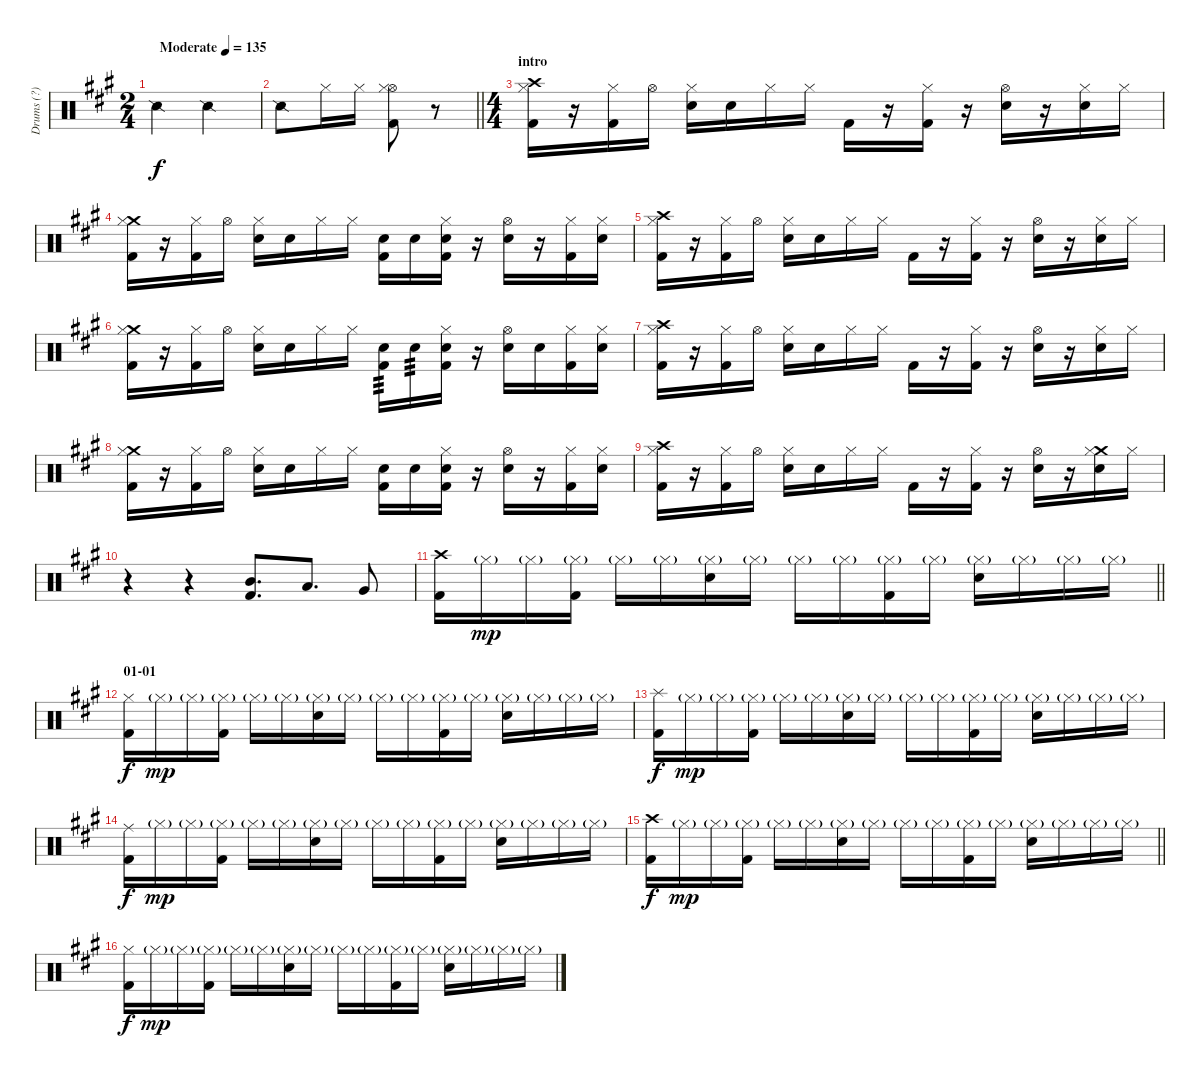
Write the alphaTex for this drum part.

\track ("Drums (?)" "Drums (?)") {instrument percussion}
\staff {score}
\articulation defaults
\ts (2 4)
\tempo (135 "Moderate")
\clef neutral
\ks a "Snare (side stick) 2".4{dy f} "Snare (side stick) 2".4
|
\barLineRight lightlight "Snare (side stick) 2".8 "Hi-Hat (closed)".16 "Hi-Hat (closed)".16
("Hi-Hat (open)" "Hi-Hat (closed)" "Kick (hit) 2").8 r.8 |
\ts (4 4)
\section ("" "intro")
("Crash high (hit)" "Hi-Hat (closed)" "Kick (hit) 2").16 r.16 ("Hi-Hat (closed)" "Kick (hit) 2").16 "Hi-Hat (open)".16 ("Hi-Hat (closed)" "Electric Snare (hit)").16 "Hand Clap (hit)".16 "Hi-Hat (closed)".16 "Hi-Hat (closed)".16 "Kick (hit) 2".16 r.16 ("Hi-Hat (closed)" "Kick (hit) 2").16 r.16 ("Hi-Hat (open)" "Electric Snare (hit)").16 r.16 ("Hi-Hat (closed)" "Hand Clap (hit)").16 "Hi-Hat (closed)".16 |
("Crash medium (hit)" "Hi-Hat (closed)" "Kick (hit) 2").16 r.16 ("Hi-Hat (closed)" "Kick (hit) 2").16 "Hi-Hat (open)".16 ("Hi-Hat (closed)" "Electric Snare (hit)").16 "Hand Clap (hit)".16 "Hi-Hat (closed)".16 "Hi-Hat (closed)".16 ("Electric Snare (hit)" "Kick (hit) 2").16 "Electric Snare (hit)".16 ("Hi-Hat (closed)" "Electric Snare (hit)" "Kick (hit) 2").16 r.16 ("Hi-Hat (open)" "Electric Snare (hit)").16 r.16 ("Hi-Hat (closed)" "Kick (hit) 2").16 ("Hi-Hat (closed)" "Hand Clap (hit)").16 |
("Crash high (hit)" "Hi-Hat (closed)" "Kick (hit) 2").16 r.16 ("Hi-Hat (closed)" "Kick (hit) 2").16 "Hi-Hat (open)".16 ("Hi-Hat (closed)" "Electric Snare (hit)").16 "Hand Clap (hit)".16 "Hi-Hat (closed)".16 "Hi-Hat (closed)".16 "Kick (hit) 2".16 r.16 ("Hi-Hat (closed)" "Kick (hit) 2").16 r.16 ("Hi-Hat (open)" "Electric Snare (hit)").16 r.16 ("Hi-Hat (closed)" "Hand Clap (hit)").16 "Hi-Hat (closed)".16 |
("Crash medium (hit)" "Hi-Hat (closed)" "Kick (hit) 2").16 r.16 ("Hi-Hat (closed)" "Kick (hit) 2").16 "Hi-Hat (open)".16 ("Hi-Hat (closed)" "Electric Snare (hit)").16 "Hand Clap (hit)".16 "Hi-Hat (closed)".16 "Hi-Hat (closed)".16 ("Electric Snare (hit)" "Kick (hit) 2").16{tp 3} "Electric Snare (hit)".16{tp 3} ("Hi-Hat (closed)" "Electric Snare (hit)" "Kick (hit) 2").16 r.16 ("Hi-Hat (open)" "Electric Snare (hit)").16 "Electric Snare (hit)".16 ("Hi-Hat (closed)" "Kick (hit) 2").16 ("Hi-Hat (closed)" "Hand Clap (hit)").16 |
("Crash high (hit)" "Hi-Hat (closed)" "Kick (hit) 2").16 r.16 ("Hi-Hat (closed)" "Kick (hit) 2").16 "Hi-Hat (open)".16 ("Hi-Hat (closed)" "Electric Snare (hit)").16 "Hand Clap (hit)".16 "Hi-Hat (closed)".16 "Hi-Hat (closed)".16 "Kick (hit) 2".16 r.16 ("Hi-Hat (closed)" "Kick (hit) 2").16 r.16 ("Hi-Hat (open)" "Electric Snare (hit)").16 r.16 ("Hi-Hat (closed)" "Hand Clap (hit)").16 "Hi-Hat (closed)".16 |
("Crash medium (hit)" "Hi-Hat (closed)" "Kick (hit) 2").16 r.16 ("Hi-Hat (closed)" "Kick (hit) 2").16 "Hi-Hat (open)".16 ("Hi-Hat (closed)" "Electric Snare (hit)").16 "Hand Clap (hit)".16 "Hi-Hat (closed)".16 "Hi-Hat (closed)".16 ("Electric Snare (hit)" "Kick (hit) 2").16 "Electric Snare (hit)".16 ("Hi-Hat (closed)" "Electric Snare (hit)" "Kick (hit) 2").16 r.16 ("Hi-Hat (open)" "Electric Snare (hit)").16 r.16 ("Hi-Hat (closed)" "Kick (hit) 2").16 ("Hi-Hat (closed)" "Hand Clap (hit)").16 |
("Crash high (hit)" "Hi-Hat (closed)" "Kick (hit) 2").16 r.16 ("Hi-Hat (closed)" "Kick (hit) 2").16 "Hi-Hat (open)".16 ("Hi-Hat (closed)" "Electric Snare (hit)").16 "Hand Clap (hit)".16 "Hi-Hat (closed)".16 "Hi-Hat (closed)".16 "Kick (hit) 2".16 r.16 ("Hi-Hat (closed)" "Kick (hit) 2").16 r.16 ("Hi-Hat (open)" "Electric Snare (hit)").16 r.16 ("Crash medium (hit)" "Hi-Hat (closed)" "Hand Clap (hit)").16 "Hi-Hat (closed)".16 |
r.4 r.4 ("Mid Tom (hit)" "Kick (hit) 2").8{d} "Low Tom (hit)".8{d} "Very Low Tom (hit)".8 |
\barLineRight lightlight
("Crash high (hit)" "Kick (hit) 2").16 "Hi-Hat (closed)"{g}.16{dy mp} "Hi-Hat (closed)"{g}.16 ("Hi-Hat (closed)"{g} "Kick (hit) 2").16 "Hi-Hat (closed)"{g}.16 "Hi-Hat (closed)"{g}.16 ("Hi-Hat (closed)"{g} "Electric Snare (hit)").16 "Hi-Hat (closed)"{g}.16 "Hi-Hat (closed)"{g}.16 "Hi-Hat (closed)"{g}.16 ("Hi-Hat (closed)"{g} "Kick (hit) 2").16 "Hi-Hat (closed)"{g}.16 ("Hi-Hat (closed)"{g} "Electric Snare (hit)").16 "Hi-Hat (closed)"{g}.16 "Hi-Hat (closed)"{g}.16 "Hi-Hat (closed)"{g}.16 |
\section ("" "01-01")
("Hi-Hat (closed)" "Kick (hit) 2").16{dy f} "Hi-Hat (closed)"{g}.16{dy mp} "Hi-Hat (closed)"{g}.16 ("Hi-Hat (closed)"{g} "Kick (hit) 2").16 "Hi-Hat (closed)"{g}.16 "Hi-Hat (closed)"{g}.16 ("Hi-Hat (closed)"{g} "Electric Snare (hit)").16 "Hi-Hat (closed)"{g}.16 "Hi-Hat (closed)"{g}.16 "Hi-Hat (closed)"{g}.16 ("Hi-Hat (closed)"{g} "Kick (hit) 2").16 "Hi-Hat (closed)"{g}.16 ("Hi-Hat (closed)"{g} "Electric Snare (hit)").16 "Hi-Hat (closed)"{g}.16 "Hi-Hat (closed)"{g}.16 "Hi-Hat (closed)"{g}.16 |
("Splash (hit)" "Kick (hit) 2").16{dy f} "Hi-Hat (closed)"{g}.16{dy mp} "Hi-Hat (closed)"{g}.16 ("Hi-Hat (closed)"{g} "Kick (hit) 2").16 "Hi-Hat (closed)"{g}.16 "Hi-Hat (closed)"{g}.16 ("Hi-Hat (closed)"{g} "Electric Snare (hit)").16 "Hi-Hat (closed)"{g}.16 "Hi-Hat (closed)"{g}.16 "Hi-Hat (closed)"{g}.16 ("Hi-Hat (closed)"{g} "Kick (hit) 2").16 "Hi-Hat (closed)"{g}.16 ("Hi-Hat (closed)"{g} "Electric Snare (hit)").16 "Hi-Hat (closed)"{g}.16 "Hi-Hat (closed)"{g}.16 "Hi-Hat (closed)"{g}.16 |
("Ride (middle)" "Kick (hit) 2").16{dy f} "Hi-Hat (closed)"{g}.16{dy mp} "Hi-Hat (closed)"{g}.16 ("Hi-Hat (closed)"{g} "Kick (hit) 2").16 "Hi-Hat (closed)"{g}.16 "Hi-Hat (closed)"{g}.16 ("Hi-Hat (closed)"{g} "Electric Snare (hit)").16 "Hi-Hat (closed)"{g}.16 "Hi-Hat (closed)"{g}.16 "Hi-Hat (closed)"{g}.16 ("Hi-Hat (closed)"{g} "Kick (hit) 2").16 "Hi-Hat (closed)"{g}.16 ("Hi-Hat (closed)"{g} "Electric Snare (hit)").16 "Hi-Hat (closed)"{g}.16 "Hi-Hat (closed)"{g}.16 "Hi-Hat (closed)"{g}.16 |
\barLineRight lightlight
("Crash high (hit)" "Kick (hit) 2").16{dy f} "Hi-Hat (closed)"{g}.16{dy mp} "Hi-Hat (closed)"{g}.16 ("Hi-Hat (closed)"{g} "Kick (hit) 2").16 "Hi-Hat (closed)"{g}.16 "Hi-Hat (closed)"{g}.16 ("Hi-Hat (closed)"{g} "Electric Snare (hit)").16 "Hi-Hat (closed)"{g}.16 "Hi-Hat (closed)"{g}.16 "Hi-Hat (closed)"{g}.16 ("Hi-Hat (closed)"{g} "Kick (hit) 2").16 "Hi-Hat (closed)"{g}.16 ("Hi-Hat (closed)"{g} "Electric Snare (hit)").16 "Hi-Hat (closed)"{g}.16 "Hi-Hat (closed)"{g}.16 "Hi-Hat (closed)"{g}.16 |
("Hi-Hat (closed)" "Kick (hit) 2").16{dy f} "Hi-Hat (closed)"{g}.16{dy mp} "Hi-Hat (closed)"{g}.16 ("Hi-Hat (closed)"{g} "Kick (hit) 2").16 "Hi-Hat (closed)"{g}.16 "Hi-Hat (closed)"{g}.16 ("Hi-Hat (closed)"{g} "Electric Snare (hit)").16 "Hi-Hat (closed)"{g}.16 "Hi-Hat (closed)"{g}.16 "Hi-Hat (closed)"{g}.16 ("Hi-Hat (closed)"{g} "Kick (hit) 2").16 "Hi-Hat (closed)"{g}.16 ("Hi-Hat (closed)"{g} "Electric Snare (hit)").16 "Hi-Hat (closed)"{g}.16 "Hi-Hat (closed)"{g}.16 "Hi-Hat (closed)"{g}.16
